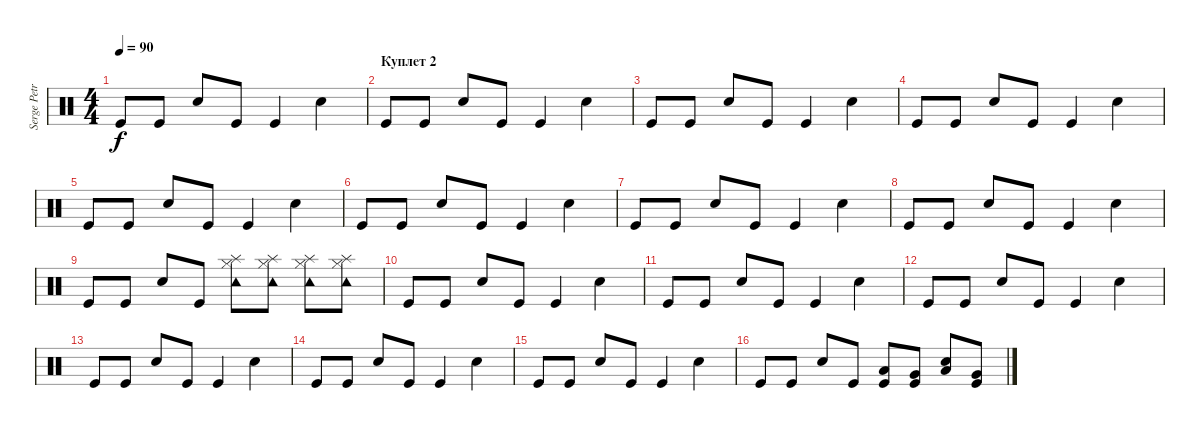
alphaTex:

\track ("Serge Petrone" "Serge Petr") {instrument percussion}
\staff {score}
\articulation defaults
\ts (4 4)
\tempo 90
\clef neutral
\ks c "Kick (hit)".8{dy f} "Kick (hit)".8 "Snare (hit) 2".8 "Kick (hit)".8 "Kick (hit)".4 "Snare (hit) 2".4
|
\section ("" "Куплет 2")
"Kick (hit)".8 "Kick (hit)".8 "Snare (hit) 2".8 "Kick (hit)".8 "Kick (hit)".4 "Snare (hit) 2".4 |
"Kick (hit)".8 "Kick (hit)".8 "Snare (hit) 2".8 "Kick (hit)".8 "Kick (hit)".4 "Snare (hit) 2".4 |
"Kick (hit)".8 "Kick (hit)".8 "Snare (hit) 2".8 "Kick (hit)".8 "Kick (hit)".4 "Snare (hit) 2".4 |
"Kick (hit)".8 "Kick (hit)".8 "Snare (hit) 2".8 "Kick (hit)".8 "Kick (hit)".4 "Snare (hit) 2".4 |
"Kick (hit)".8 "Kick (hit)".8 "Snare (hit) 2".8 "Kick (hit)".8 "Kick (hit)".4 "Snare (hit) 2".4 |
"Kick (hit)".8 "Kick (hit)".8 "Snare (hit) 2".8 "Kick (hit)".8 "Kick (hit)".4 "Snare (hit) 2".4 |
"Kick (hit)".8 "Kick (hit)".8 "Snare (hit) 2".8 "Kick (hit)".8 "Kick (hit)".4 "Snare (hit) 2".4 |
"Kick (hit)".8 "Kick (hit)".8 "Snare (hit) 2".8 "Kick (hit)".8 ("Splash (hit)" "Tambourine (hit)" "Hi-Hat (closed)").8 ("Splash (hit)" "Hi-Hat (closed)" "Tambourine (hit)").8 ("Splash (hit)" "Hi-Hat (closed)" "Tambourine (hit)").8 ("Splash (hit)" "Hi-Hat (closed)" "Tambourine (hit)").8 |
"Kick (hit)".8 "Kick (hit)".8 "Snare (hit) 2".8 "Kick (hit)".8 "Kick (hit)".4 "Snare (hit) 2".4 |
"Kick (hit)".8 "Kick (hit)".8 "Snare (hit) 2".8 "Kick (hit)".8 "Kick (hit)".4 "Snare (hit) 2".4 |
"Kick (hit)".8 "Kick (hit)".8 "Snare (hit) 2".8 "Kick (hit)".8 "Kick (hit)".4 "Snare (hit) 2".4 |
"Kick (hit)".8 "Kick (hit)".8 "Snare (hit) 2".8 "Kick (hit)".8 "Kick (hit)".4 "Snare (hit) 2".4 |
"Kick (hit)".8 "Kick (hit)".8 "Snare (hit) 2".8 "Kick (hit)".8 "Kick (hit)".4 "Snare (hit) 2".4 |
"Kick (hit)".8 "Kick (hit)".8 "Snare (hit) 2".8 "Kick (hit)".8 "Kick (hit)".4 "Snare (hit) 2".4 |
"Kick (hit)".8 "Kick (hit)".8 "Snare (hit) 2".8 "Kick (hit)".8 ("Kick (hit)" "Low Floor Tom (hit)").8 ("Kick (hit)" "Very Low Tom (hit)").8 ("Snare (hit) 2" "Low Tom (hit)").8 ("Kick (hit)" "Very Low Tom (hit)").8
